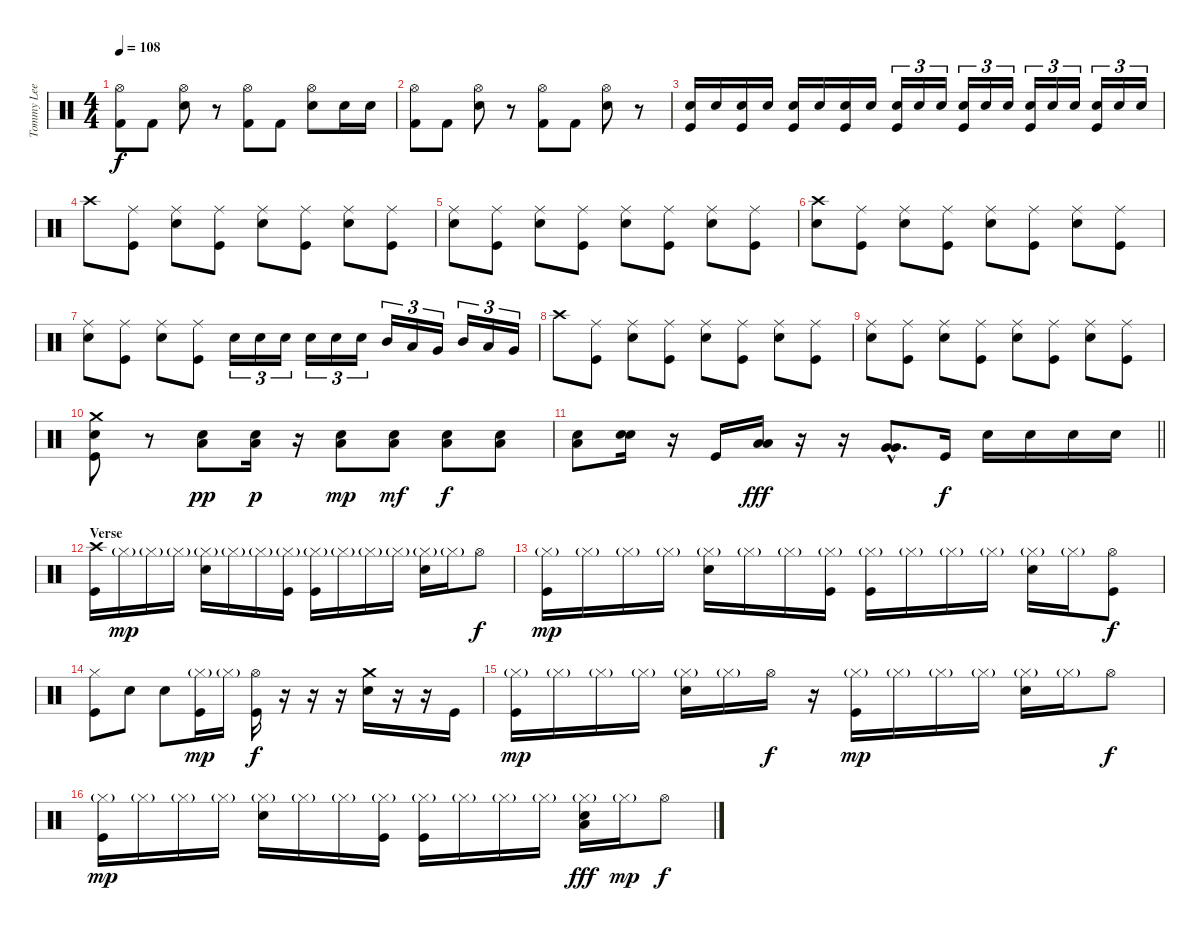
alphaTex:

\track ("Tommy Lee" "Tommy Lee") {instrument percussion}
\staff {score}
\articulation defaults
\ts (4 4)
\tempo 108
\clef neutral
\ks c
("Hi-Hat (open)" "Kick (hit) 2").8{dy f} "Kick (hit) 2".8 ("Hi-Hat (open)" "Snare (hit) 2").8 r.8 ("Hi-Hat (open)" "Kick (hit) 2").8 "Kick (hit) 2".8 ("Hi-Hat (open)" "Snare (hit) 2").8 "Snare (hit) 2".16 "Snare (hit) 2".16 |
("Hi-Hat (open)" "Kick (hit) 2").8 "Kick (hit) 2".8 ("Hi-Hat (open)" "Snare (hit) 2").8 r.8 ("Hi-Hat (open)" "Kick (hit) 2").8 "Kick (hit) 2".8 ("Hi-Hat (open)" "Snare (hit) 2").8 r.8 |
("Snare (hit) 2" "Kick (hit)").16 "Snare (hit) 2".16 ("Snare (hit) 2" "Kick (hit)").16 "Snare (hit) 2".16 ("Snare (hit) 2" "Kick (hit)").16 "Snare (hit) 2".16 ("Snare (hit) 2" "Kick (hit)").16 "Snare (hit) 2".16 ("Snare (hit) 2" "Kick (hit)").16{tu (3 2)} "Snare (hit) 2".16{tu (3 2)} "Snare (hit) 2".16{tu (3 2)} ("Snare (hit) 2" "Kick (hit)").16{tu (3 2)} "Snare (hit) 2".16{tu (3 2)} "Snare (hit) 2".16{tu (3 2)} ("Snare (hit) 2" "Kick (hit)").16{tu (3 2)} "Snare (hit) 2".16{tu (3 2)} "Snare (hit) 2".16{tu (3 2)} ("Snare (hit) 2" "Kick (hit)").16{tu (3 2)} "Snare (hit) 2".16{tu (3 2)} "Snare (hit) 2".16{tu (3 2)} |
"Crash high (hit)".8 ("Ride (middle)" "Kick (hit)").8 ("Ride (middle)" "Snare (hit) 2").8 ("Ride (middle)" "Kick (hit)").8 ("Ride (middle)" "Snare (hit) 2").8 ("Ride (middle)" "Kick (hit)").8 ("Ride (middle)" "Snare (hit) 2").8 ("Ride (middle)" "Kick (hit)").8 |
("Ride (middle)" "Snare (hit) 2").8 ("Ride (middle)" "Kick (hit)").8 ("Ride (middle)" "Snare (hit) 2").8 ("Ride (middle)" "Kick (hit)").8 ("Ride (middle)" "Snare (hit) 2").8 ("Ride (middle)" "Kick (hit)").8 ("Ride (middle)" "Snare (hit) 2").8 ("Ride (middle)" "Kick (hit)").8 |
("Crash high (hit)" "Snare (hit) 2").8 ("Ride (middle)" "Kick (hit)").8 ("Ride (middle)" "Snare (hit) 2").8 ("Ride (middle)" "Kick (hit)").8 ("Ride (middle)" "Snare (hit) 2").8 ("Ride (middle)" "Kick (hit)").8 ("Ride (middle)" "Snare (hit) 2").8 ("Ride (middle)" "Kick (hit)").8 |
("Ride (middle)" "Snare (hit) 2").8 ("Ride (middle)" "Kick (hit)").8 ("Ride (middle)" "Snare (hit) 2").8 ("Ride (middle)" "Kick (hit)").8 "Snare (hit) 2".16{tu (3 2)} "Snare (hit) 2".16{tu (3 2)} "Snare (hit) 2".16{tu (3 2)} "Snare (hit) 2".16{tu (3 2)} "Snare (hit) 2".16{tu (3 2)} "Snare (hit) 2".16{tu (3 2)} "Mid Tom (hit)".16{tu (3 2)} "Low Tom (hit)".16{tu (3 2)} "Very Low Tom (hit)".16{tu (3 2)} "Mid Tom (hit)".16{tu (3 2)} "Low Tom (hit)".16{tu (3 2)} "Very Low Tom (hit)".16{tu (3 2)} |
"Crash high (hit)".8 ("Ride (middle)" "Kick (hit)").8 ("Ride (middle)" "Snare (hit) 2").8 ("Ride (middle)" "Kick (hit)").8 ("Ride (middle)" "Snare (hit) 2").8 ("Ride (middle)" "Kick (hit)").8 ("Ride (middle)" "Snare (hit) 2").8 ("Ride (middle)" "Kick (hit)").8 |
("Ride (middle)" "Snare (hit) 2").8 ("Ride (middle)" "Kick (hit)").8 ("Ride (middle)" "Snare (hit) 2").8 ("Ride (middle)" "Kick (hit)").8 ("Ride (middle)" "Snare (hit) 2").8 ("Ride (middle)" "Kick (hit)").8 ("Ride (middle)" "Snare (hit) 2").8 ("Ride (middle)" "Kick (hit)").8 |
("Crash medium (hit)" "Snare (hit) 2" "Kick (hit)").8 r.8 ("Low Floor Tom (hit)" "Snare (hit) 2").8{dy pp} ("Low Floor Tom (hit)" "Snare (hit) 2").16{dy p} r.16 ("Low Floor Tom (hit)" "Snare (hit) 2").8{dy mp} ("Low Floor Tom (hit)" "Snare (hit) 2").8{dy mf} ("Low Floor Tom (hit)" "Snare (hit) 2").8{dy f} ("Low Floor Tom (hit)" "Snare (hit) 2").8 |
\barLineRight lightlight
("Low Floor Tom (hit)" "Snare (hit) 2").8 ("Snare (hit) 2" "Snare (hit) 2").16 r.16 "Kick (hit)".16 ("Low Tom (hit)" "Low Tom (hit)").16{dy fff} r.16 r.16 ("Very Low Tom (hit)"{hac} "Very Low Tom (hit)"{hac}).8{d} "Kick (hit)".16{dy f} "Snare (hit) 2".16 "Snare (hit) 2".16 "Snare (hit) 2".16 "Snare (hit) 2".16 |
\section ("" "Verse")
("Crash high (hit)" "Kick (hit)").16 "Hi-Hat (closed)"{g}.16{dy mp} "Hi-Hat (closed)"{g}.16 "Hi-Hat (closed)"{g}.16 ("Hi-Hat (closed)"{g} "Snare (hit) 2").16 "Hi-Hat (closed)"{g}.16 "Hi-Hat (closed)"{g}.16 ("Hi-Hat (closed)"{g} "Kick (hit)").16 ("Hi-Hat (closed)"{g} "Kick (hit)").16 "Hi-Hat (closed)"{g}.16 "Hi-Hat (closed)"{g}.16 "Hi-Hat (closed)"{g}.16 ("Hi-Hat (closed)"{g} "Snare (hit) 2").16 "Hi-Hat (closed)"{g}.16 "Hi-Hat (open)".8{dy f} |
("Hi-Hat (closed)"{g} "Kick (hit)").16{dy mp} "Hi-Hat (closed)"{g}.16 "Hi-Hat (closed)"{g}.16 "Hi-Hat (closed)"{g}.16 ("Hi-Hat (closed)"{g} "Snare (hit) 2").16 "Hi-Hat (closed)"{g}.16 "Hi-Hat (closed)"{g}.16 ("Hi-Hat (closed)"{g} "Kick (hit)").16 ("Hi-Hat (closed)"{g} "Kick (hit)").16 "Hi-Hat (closed)"{g}.16 "Hi-Hat (closed)"{g}.16 "Hi-Hat (closed)"{g}.16 ("Hi-Hat (closed)"{g} "Snare (hit) 2").16 "Hi-Hat (closed)"{g}.16 ("Hi-Hat (open)" "Kick (hit)").8{dy f} |
("Hi-Hat (closed)" "Kick (hit)").8 "Snare (hit) 2".8 "Snare (hit) 2".8 ("Hi-Hat (closed)"{g} "Kick (hit)").16{dy mp} "Hi-Hat (closed)"{g}.16 ("Hi-Hat (open)" "Kick (hit)").16{dy f} r.16 r.16 r.16 ("Crash medium (hit)" "Snare (hit) 2").16 r.16 r.16 "Kick (hit)".16 |
("Hi-Hat (closed)"{g} "Kick (hit)").16{dy mp} "Hi-Hat (closed)"{g}.16 "Hi-Hat (closed)"{g}.16 "Hi-Hat (closed)"{g}.16 ("Hi-Hat (closed)"{g} "Snare (hit) 2").16 "Hi-Hat (closed)"{g}.16 "Hi-Hat (open)".16{dy f} r.16 ("Hi-Hat (closed)"{g} "Kick (hit)").16{dy mp} "Hi-Hat (closed)"{g}.16 "Hi-Hat (closed)"{g}.16 "Hi-Hat (closed)"{g}.16 ("Hi-Hat (closed)"{g} "Snare (hit) 2").16 "Hi-Hat (closed)"{g}.16 "Hi-Hat (open)".8{dy f} |
("Hi-Hat (closed)"{g} "Kick (hit)").16{dy mp} "Hi-Hat (closed)"{g}.16 "Hi-Hat (closed)"{g}.16 "Hi-Hat (closed)"{g}.16 ("Hi-Hat (closed)"{g} "Snare (hit) 2").16 "Hi-Hat (closed)"{g}.16 "Hi-Hat (closed)"{g}.16 ("Hi-Hat (closed)"{g} "Kick (hit)").16 ("Hi-Hat (closed)"{g} "Kick (hit)").16 "Hi-Hat (closed)"{g}.16 "Hi-Hat (closed)"{g}.16 "Hi-Hat (closed)"{g}.16 ("Hi-Hat (closed)"{g} "Low Tom (hit)" "Snare (hit) 2").16{dy fff} "Hi-Hat (closed)"{g}.16{dy mp} "Hi-Hat (open)".8{dy f}
